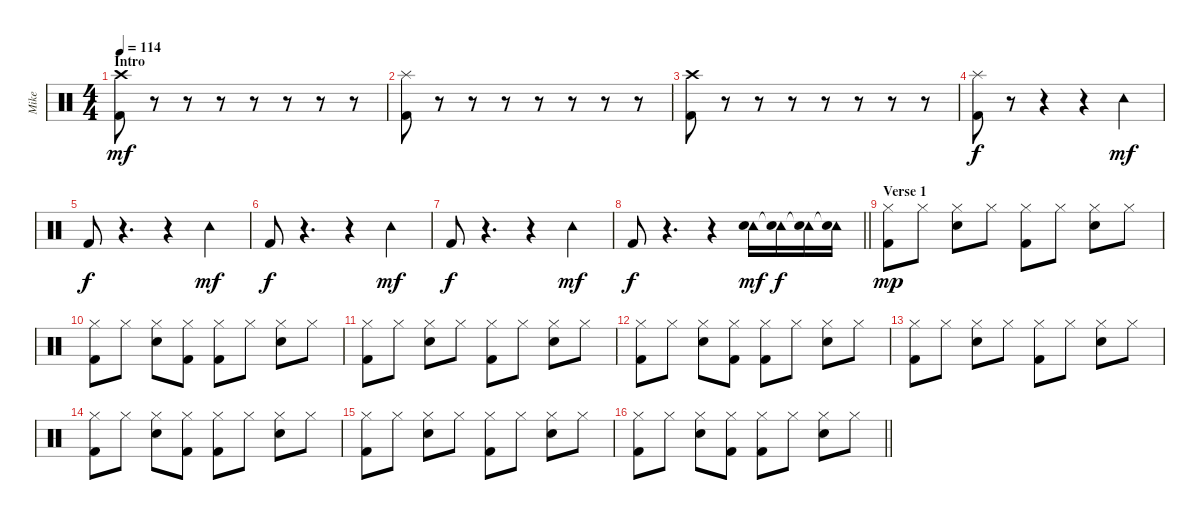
\track ("Mike" "Mike") {instrument percussion}
\staff {score}
\articulation defaults
\ts (4 4)
\section ("" "Intro")
\tempo 114
\clef neutral
\ks c
("Crash high (hit)" "Kick (hit) 2").8{dy mf} r.8 r.8 r.8 r.8 r.8 r.8 r.8 |
("Splash (hit)" "Kick (hit) 2").8 r.8 r.8 r.8 r.8 r.8 r.8 r.8 |
("Crash high (hit)" "Kick (hit) 2").8 r.8 r.8 r.8 r.8 r.8 r.8 r.8 |
("Splash (hit)" "Kick (hit) 2").8{dy f} r.8 r.4 r.4 "Tambourine (hit)".4{dy mf} |
"Kick (hit) 2".8{dy f} r.4{d} r.4 "Tambourine (hit)".4{dy mf} |
"Kick (hit) 2".8{dy f} r.4{d} r.4 "Tambourine (hit)".4{dy mf} |
"Kick (hit) 2".8{dy f} r.4{d} r.4 "Tambourine (hit)".4{dy mf} |
\barLineRight lightlight "Kick (hit) 2".8{dy f}
r.4{d} r.4 ("Tambourine (hit)" "Electric Snare (hit)").16{dy mf} ("Tambourine (hit)"{t} "Electric Snare (hit)").16{dy f} ("Tambourine (hit)"{t} "Electric Snare (hit)").16 ("Tambourine (hit)"{t} "Electric Snare (hit)").16 |
\section ("" "Verse 1")
("Hi-Hat (closed)" "Kick (hit) 2").8{dy mp} "Hi-Hat (closed)".8 ("Hi-Hat (closed)" "Electric Snare (hit)").8 "Hi-Hat (closed)".8 ("Hi-Hat (closed)" "Kick (hit) 2").8 "Hi-Hat (closed)".8 ("Hi-Hat (closed)" "Electric Snare (hit)").8 "Hi-Hat (closed)".8 |
("Hi-Hat (closed)" "Kick (hit) 2").8 "Hi-Hat (closed)".8 ("Hi-Hat (closed)" "Electric Snare (hit)").8 ("Hi-Hat (closed)" "Kick (hit) 2").8 ("Hi-Hat (closed)" "Kick (hit) 2").8 "Hi-Hat (closed)".8 ("Hi-Hat (closed)" "Electric Snare (hit)").8 "Hi-Hat (closed)".8 |
("Hi-Hat (closed)" "Kick (hit) 2").8 "Hi-Hat (closed)".8 ("Hi-Hat (closed)" "Electric Snare (hit)").8 "Hi-Hat (closed)".8 ("Hi-Hat (closed)" "Kick (hit) 2").8 "Hi-Hat (closed)".8 ("Hi-Hat (closed)" "Electric Snare (hit)").8 "Hi-Hat (closed)".8 |
("Hi-Hat (closed)" "Kick (hit) 2").8 "Hi-Hat (closed)".8 ("Hi-Hat (closed)" "Electric Snare (hit)").8 ("Hi-Hat (closed)" "Kick (hit) 2").8 ("Hi-Hat (closed)" "Kick (hit) 2").8 "Hi-Hat (closed)".8 ("Hi-Hat (closed)" "Electric Snare (hit)").8 "Hi-Hat (closed)".8 |
("Hi-Hat (closed)" "Kick (hit) 2").8 "Hi-Hat (closed)".8 ("Hi-Hat (closed)" "Electric Snare (hit)").8 "Hi-Hat (closed)".8 ("Hi-Hat (closed)" "Kick (hit) 2").8 "Hi-Hat (closed)".8 ("Hi-Hat (closed)" "Electric Snare (hit)").8 "Hi-Hat (closed)".8 |
("Hi-Hat (closed)" "Kick (hit) 2").8 "Hi-Hat (closed)".8 ("Hi-Hat (closed)" "Electric Snare (hit)").8 ("Hi-Hat (closed)" "Kick (hit) 2").8 ("Hi-Hat (closed)" "Kick (hit) 2").8 "Hi-Hat (closed)".8 ("Hi-Hat (closed)" "Electric Snare (hit)").8 "Hi-Hat (closed)".8 |
("Hi-Hat (closed)" "Kick (hit) 2").8 "Hi-Hat (closed)".8 ("Hi-Hat (closed)" "Electric Snare (hit)").8 "Hi-Hat (closed)".8 ("Hi-Hat (closed)" "Kick (hit) 2").8 "Hi-Hat (closed)".8 ("Hi-Hat (closed)" "Electric Snare (hit)").8 "Hi-Hat (closed)".8 |
\barLineRight lightlight
("Hi-Hat (closed)" "Kick (hit) 2").8 "Hi-Hat (closed)".8 ("Hi-Hat (closed)" "Electric Snare (hit)").8 ("Hi-Hat (closed)" "Kick (hit) 2").8 ("Hi-Hat (closed)" "Kick (hit) 2").8 "Hi-Hat (closed)".8 ("Hi-Hat (closed)" "Electric Snare (hit)").8 "Hi-Hat (closed)".8
